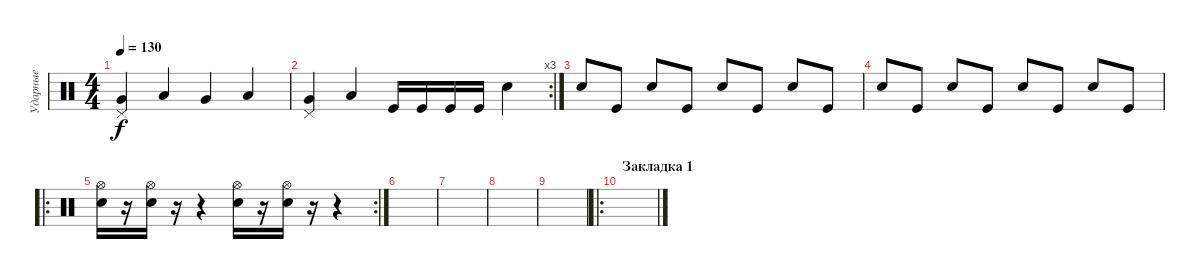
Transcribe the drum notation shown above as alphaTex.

\track ("Ударные" "Ударные") {instrument percussion}
\staff {score}
\articulation defaults
\ts (4 4)
\tempo 130
\clef neutral
\ks c
("Pedal Hi-Hat (hit)" "Very Low Tom (hit)").4{dy f} "Low Tom (hit)".4 "Very Low Tom (hit)".4 "Low Tom (hit)".4 |
\rc 3
("Pedal Hi-Hat (hit)" "Very Low Tom (hit)").4 "Low Tom (hit)".4 "Kick (hit)".16 "Kick (hit)".16 "Kick (hit)".16 "Kick (hit)".16 "Snare (hit) 2".4 |
"Snare (hit) 2".8 "Kick (hit)".8 "Electric Snare (hit)".8 "Kick (hit)".8 "Snare (hit) 2".8 "Kick (hit)".8 "Electric Snare (hit)".8 "Kick (hit)".8 |
"Snare (hit) 2".8 "Kick (hit)".8 "Electric Snare (hit)".8 "Kick (hit)".8 "Snare (hit) 2".8 "Kick (hit)".8 "Electric Snare (hit)".8 "Kick (hit)".8 |
\ro
\rc 2
("Snare (hit) 2" "Hi-Hat (open)").16 r.16 ("Snare (hit) 2" "Hi-Hat (open)").16 r.16 r.4 ("Snare (hit) 2" "Hi-Hat (open)").16 r.16 ("Snare (hit) 2" "Hi-Hat (open)").16 r.16 r.4 |
|
|
|
|
\ro
\section ("" "Закладка 1")
